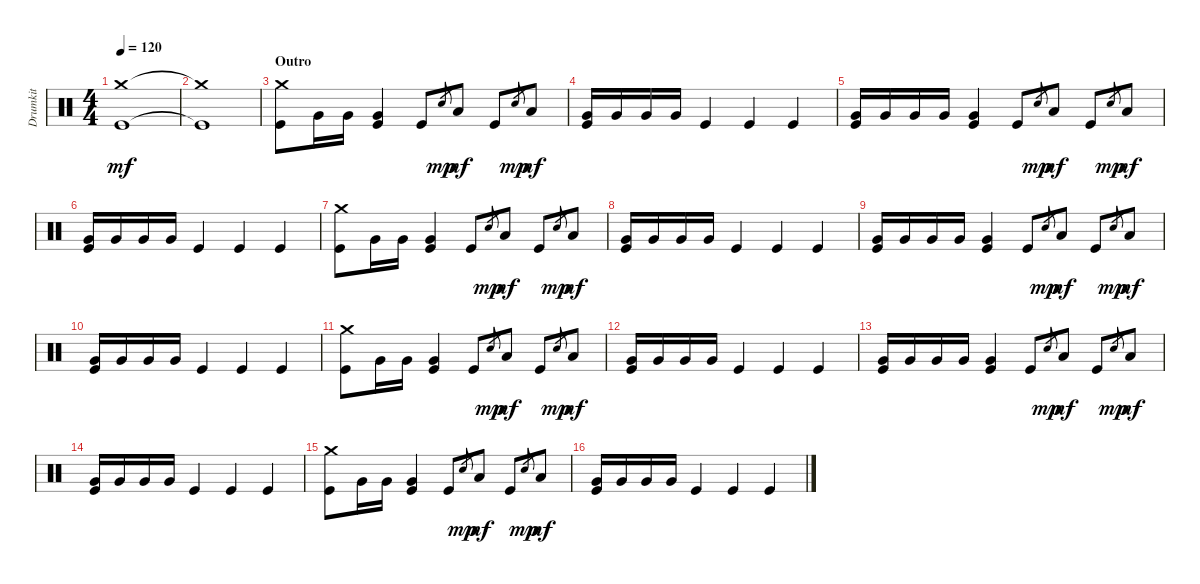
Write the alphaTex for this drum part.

\track ("Drumkit" "Drumkit") {instrument percussion}
\staff {score}
\articulation defaults
\ts (4 4)
\tempo 120
\clef neutral
\ks c
("Crash medium (hit)"{t} "Kick (hit)"{t}).1{dy mf} |
("Crash medium (hit)"{t} "Kick (hit)"{t}).1 |
\section ("" "Outro")
("Kick (hit)" "Crash medium (hit)").8 "Very Low Tom (hit)".16 "Very Low Tom (hit)".16 ("Very Low Tom (hit)" "Kick (hit)").4 "Kick (hit)".8 "Snare (hit)".8{gr dy mp} "Low Tom (hit)".8{dy mf} "Kick (hit)".8 "Snare (hit)".8{gr dy mp} "Low Tom (hit)".8{dy mf} |
("Kick (hit)" "Very Low Tom (hit)").16 "Very Low Tom (hit)".16 "Very Low Tom (hit)".16 "Very Low Tom (hit)".16 "Kick (hit)".4 "Kick (hit)".4 "Kick (hit)".4 |
("Kick (hit)" "Very Low Tom (hit)").16 "Very Low Tom (hit)".16 "Very Low Tom (hit)".16 "Very Low Tom (hit)".16 ("Very Low Tom (hit)" "Kick (hit)").4 "Kick (hit)".8 "Snare (hit)".8{gr dy mp} "Low Tom (hit)".8{dy mf} "Kick (hit)".8 "Snare (hit)".8{gr dy mp} "Low Tom (hit)".8{dy mf} |
("Kick (hit)" "Very Low Tom (hit)").16 "Very Low Tom (hit)".16 "Very Low Tom (hit)".16 "Very Low Tom (hit)".16 "Kick (hit)".4 "Kick (hit)".4 "Kick (hit)".4 |
("Kick (hit)" "Crash medium (hit)").8 "Very Low Tom (hit)".16 "Very Low Tom (hit)".16 ("Very Low Tom (hit)" "Kick (hit)").4 "Kick (hit)".8 "Snare (hit)".8{gr dy mp} "Low Tom (hit)".8{dy mf} "Kick (hit)".8 "Snare (hit)".8{gr dy mp} "Low Tom (hit)".8{dy mf} |
("Kick (hit)" "Very Low Tom (hit)").16 "Very Low Tom (hit)".16 "Very Low Tom (hit)".16 "Very Low Tom (hit)".16 "Kick (hit)".4 "Kick (hit)".4 "Kick (hit)".4 |
("Kick (hit)" "Very Low Tom (hit)").16 "Very Low Tom (hit)".16 "Very Low Tom (hit)".16 "Very Low Tom (hit)".16 ("Very Low Tom (hit)" "Kick (hit)").4 "Kick (hit)".8 "Snare (hit)".8{gr dy mp} "Low Tom (hit)".8{dy mf} "Kick (hit)".8 "Snare (hit)".8{gr dy mp} "Low Tom (hit)".8{dy mf} |
("Kick (hit)" "Very Low Tom (hit)").16 "Very Low Tom (hit)".16 "Very Low Tom (hit)".16 "Very Low Tom (hit)".16 "Kick (hit)".4 "Kick (hit)".4 "Kick (hit)".4 |
("Kick (hit)" "Crash medium (hit)").8 "Very Low Tom (hit)".16 "Very Low Tom (hit)".16 ("Very Low Tom (hit)" "Kick (hit)").4 "Kick (hit)".8 "Snare (hit)".8{gr dy mp} "Low Tom (hit)".8{dy mf} "Kick (hit)".8 "Snare (hit)".8{gr dy mp} "Low Tom (hit)".8{dy mf} |
("Kick (hit)" "Very Low Tom (hit)").16 "Very Low Tom (hit)".16 "Very Low Tom (hit)".16 "Very Low Tom (hit)".16 "Kick (hit)".4 "Kick (hit)".4 "Kick (hit)".4 |
("Kick (hit)" "Very Low Tom (hit)").16 "Very Low Tom (hit)".16 "Very Low Tom (hit)".16 "Very Low Tom (hit)".16 ("Very Low Tom (hit)" "Kick (hit)").4 "Kick (hit)".8 "Snare (hit)".8{gr dy mp} "Low Tom (hit)".8{dy mf} "Kick (hit)".8 "Snare (hit)".8{gr dy mp} "Low Tom (hit)".8{dy mf} |
("Kick (hit)" "Very Low Tom (hit)").16 "Very Low Tom (hit)".16 "Very Low Tom (hit)".16 "Very Low Tom (hit)".16 "Kick (hit)".4 "Kick (hit)".4 "Kick (hit)".4 |
("Kick (hit)" "Crash medium (hit)").8 "Very Low Tom (hit)".16 "Very Low Tom (hit)".16 ("Very Low Tom (hit)" "Kick (hit)").4 "Kick (hit)".8 "Snare (hit)".8{gr dy mp} "Low Tom (hit)".8{dy mf} "Kick (hit)".8 "Snare (hit)".8{gr dy mp} "Low Tom (hit)".8{dy mf} |
("Kick (hit)" "Very Low Tom (hit)").16 "Very Low Tom (hit)".16 "Very Low Tom (hit)".16 "Very Low Tom (hit)".16 "Kick (hit)".4 "Kick (hit)".4 "Kick (hit)".4
